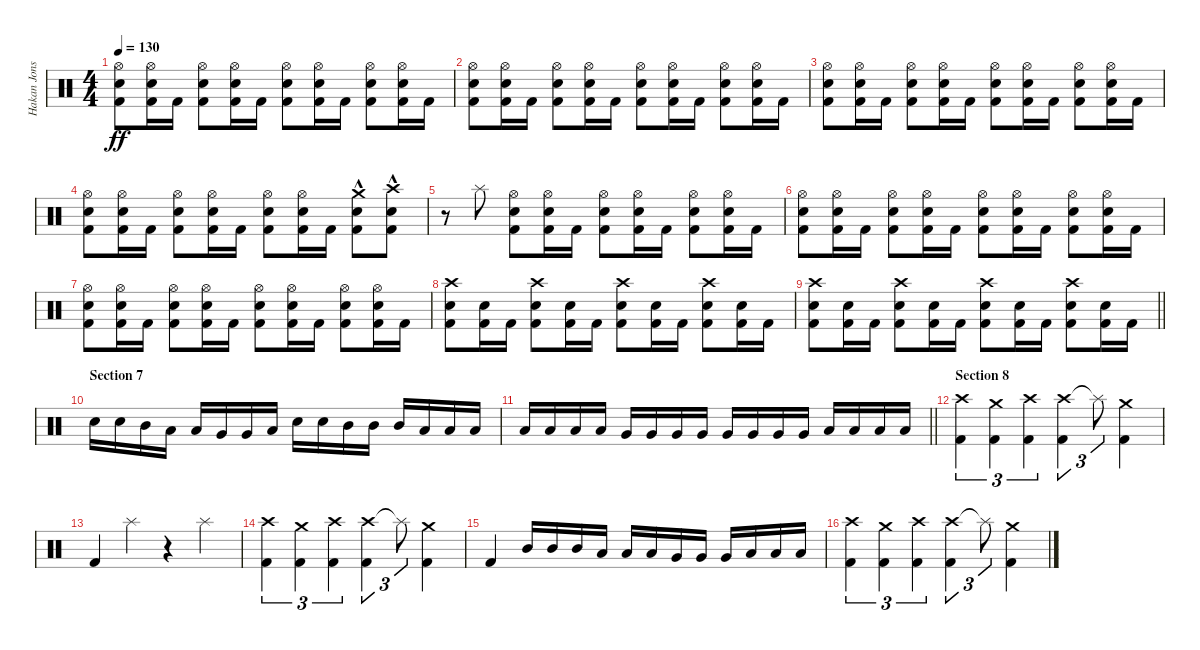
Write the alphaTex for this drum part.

\track ("Hakan Jonsson" "Hakan Jons") {instrument percussion}
\staff {score}
\articulation defaults
\ts (4 4)
\tempo 130
\clef neutral
\ks c
("Hi-Hat (open)" "Electric Snare (hit)" "Kick (hit) 2").8{dy ff} ("Hi-Hat (open)" "Electric Snare (hit)" "Kick (hit) 2").16 "Kick (hit) 2".16 ("Hi-Hat (open)" "Electric Snare (hit)" "Kick (hit) 2").8 ("Hi-Hat (open)" "Electric Snare (hit)" "Kick (hit) 2").16 "Kick (hit) 2".16 ("Hi-Hat (open)" "Electric Snare (hit)" "Kick (hit) 2").8 ("Hi-Hat (open)" "Electric Snare (hit)" "Kick (hit) 2").16 "Kick (hit) 2".16 ("Hi-Hat (open)" "Electric Snare (hit)" "Kick (hit) 2").8 ("Hi-Hat (open)" "Electric Snare (hit)" "Kick (hit) 2").16 "Kick (hit) 2".16 |
("Hi-Hat (open)" "Electric Snare (hit)" "Kick (hit) 2").8 ("Hi-Hat (open)" "Electric Snare (hit)" "Kick (hit) 2").16 "Kick (hit) 2".16 ("Hi-Hat (open)" "Electric Snare (hit)" "Kick (hit) 2").8 ("Hi-Hat (open)" "Electric Snare (hit)" "Kick (hit) 2").16 "Kick (hit) 2".16 ("Hi-Hat (open)" "Electric Snare (hit)" "Kick (hit) 2").8 ("Hi-Hat (open)" "Electric Snare (hit)" "Kick (hit) 2").16 "Kick (hit) 2".16 ("Hi-Hat (open)" "Electric Snare (hit)" "Kick (hit) 2").8 ("Hi-Hat (open)" "Electric Snare (hit)" "Kick (hit) 2").16 "Kick (hit) 2".16 |
("Hi-Hat (open)" "Electric Snare (hit)" "Kick (hit) 2").8 ("Hi-Hat (open)" "Electric Snare (hit)" "Kick (hit) 2").16 "Kick (hit) 2".16 ("Hi-Hat (open)" "Electric Snare (hit)" "Kick (hit) 2").8 ("Hi-Hat (open)" "Electric Snare (hit)" "Kick (hit) 2").16 "Kick (hit) 2".16 ("Hi-Hat (open)" "Electric Snare (hit)" "Kick (hit) 2").8 ("Hi-Hat (open)" "Electric Snare (hit)" "Kick (hit) 2").16 "Kick (hit) 2".16 ("Hi-Hat (open)" "Electric Snare (hit)" "Kick (hit) 2").8 ("Hi-Hat (open)" "Electric Snare (hit)" "Kick (hit) 2").16 "Kick (hit) 2".16 |
("Hi-Hat (open)" "Electric Snare (hit)" "Kick (hit) 2").8 ("Hi-Hat (open)" "Electric Snare (hit)" "Kick (hit) 2").16 "Kick (hit) 2".16 ("Hi-Hat (open)" "Electric Snare (hit)" "Kick (hit) 2").8 ("Hi-Hat (open)" "Electric Snare (hit)" "Kick (hit) 2").16 "Kick (hit) 2".16 ("Hi-Hat (open)" "Electric Snare (hit)" "Kick (hit) 2").8 ("Hi-Hat (open)" "Electric Snare (hit)" "Kick (hit) 2").16 "Kick (hit) 2".16 ("Crash medium (hit)" "Electric Snare (hit)"{hac} "Kick (hit) 2"{hac}).8 ("Crash high (hit)" "Electric Snare (hit)"{hac} "Kick (hit) 2"{hac}).8 |
r.8 "Splash (hit)".8 ("Hi-Hat (open)" "Electric Snare (hit)" "Kick (hit) 2").8 ("Hi-Hat (open)" "Electric Snare (hit)" "Kick (hit) 2").16 "Kick (hit) 2".16 ("Hi-Hat (open)" "Electric Snare (hit)" "Kick (hit) 2").8 ("Hi-Hat (open)" "Electric Snare (hit)" "Kick (hit) 2").16 "Kick (hit) 2".16 ("Hi-Hat (open)" "Electric Snare (hit)" "Kick (hit) 2").8 ("Hi-Hat (open)" "Electric Snare (hit)" "Kick (hit) 2").16 "Kick (hit) 2".16 |
("Hi-Hat (open)" "Electric Snare (hit)" "Kick (hit) 2").8 ("Hi-Hat (open)" "Electric Snare (hit)" "Kick (hit) 2").16 "Kick (hit) 2".16 ("Hi-Hat (open)" "Electric Snare (hit)" "Kick (hit) 2").8 ("Hi-Hat (open)" "Electric Snare (hit)" "Kick (hit) 2").16 "Kick (hit) 2".16 ("Hi-Hat (open)" "Electric Snare (hit)" "Kick (hit) 2").8 ("Hi-Hat (open)" "Electric Snare (hit)" "Kick (hit) 2").16 "Kick (hit) 2".16 ("Hi-Hat (open)" "Electric Snare (hit)" "Kick (hit) 2").8 ("Hi-Hat (open)" "Electric Snare (hit)" "Kick (hit) 2").16 "Kick (hit) 2".16 |
("Hi-Hat (open)" "Electric Snare (hit)" "Kick (hit) 2").8 ("Hi-Hat (open)" "Electric Snare (hit)" "Kick (hit) 2").16 "Kick (hit) 2".16 ("Hi-Hat (open)" "Electric Snare (hit)" "Kick (hit) 2").8 ("Hi-Hat (open)" "Electric Snare (hit)" "Kick (hit) 2").16 "Kick (hit) 2".16 ("Hi-Hat (open)" "Electric Snare (hit)" "Kick (hit) 2").8 ("Hi-Hat (open)" "Electric Snare (hit)" "Kick (hit) 2").16 "Kick (hit) 2".16 ("Hi-Hat (open)" "Electric Snare (hit)" "Kick (hit) 2").8 ("Hi-Hat (open)" "Electric Snare (hit)" "Kick (hit) 2").16 "Kick (hit) 2".16 |
("Crash high (hit)" "Electric Snare (hit)" "Kick (hit) 2").8 ("Electric Snare (hit)" "Kick (hit) 2").16 "Kick (hit) 2".16 ("Crash high (hit)" "Electric Snare (hit)" "Kick (hit) 2").8 ("Electric Snare (hit)" "Kick (hit) 2").16 "Kick (hit) 2".16 ("Crash high (hit)" "Electric Snare (hit)" "Kick (hit) 2").8 ("Electric Snare (hit)" "Kick (hit) 2").16 "Kick (hit) 2".16 ("Crash high (hit)" "Electric Snare (hit)" "Kick (hit) 2").8 ("Electric Snare (hit)" "Kick (hit) 2").16 "Kick (hit) 2".16 |
\barLineRight lightlight
("Crash high (hit)" "Electric Snare (hit)" "Kick (hit) 2").8 ("Electric Snare (hit)" "Kick (hit) 2").16 "Kick (hit) 2".16 ("Crash high (hit)" "Electric Snare (hit)" "Kick (hit) 2").8 ("Electric Snare (hit)" "Kick (hit) 2").16 "Kick (hit) 2".16 ("Crash high (hit)" "Electric Snare (hit)" "Kick (hit) 2").8 ("Electric Snare (hit)" "Kick (hit) 2").16 "Kick (hit) 2".16 ("Crash high (hit)" "Electric Snare (hit)" "Kick (hit) 2").8 ("Electric Snare (hit)" "Kick (hit) 2").16 "Kick (hit) 2".16 |
\section ("" "Section 7")
"Electric Snare (hit)".16 "Electric Snare (hit)".16 "Mid Tom (hit)".16 "Low Tom (hit)".16 "Low Tom (hit)".16 "Very Low Tom (hit)".16 "Very Low Tom (hit)".16 "Low Floor Tom (hit)".16 "Electric Snare (hit)".16 "Electric Snare (hit)".16 "Mid Tom (hit)".16 "Mid Tom (hit)".16 "Mid Tom (hit)".16 "Low Tom (hit)".16 "Low Tom (hit)".16 "Low Tom (hit)".16 |
\barLineRight lightlight "Low Tom (hit)".16 "Low Tom (hit)".16 "Low Tom (hit)".16 "Low Tom (hit)".16 "Very Low Tom (hit)".16 "Very Low Tom (hit)".16 "Very Low Tom (hit)".16 "Very Low Tom (hit)".16 "Very Low Tom (hit)".16 "Very Low Tom (hit)".16 "Very Low Tom (hit)".16 "Very Low Tom (hit)".16 "Low Floor Tom (hit)".16 "Low Floor Tom (hit)".16 "Low Floor Tom (hit)".16 "Low Floor Tom (hit)".16
|
\section ("" "Section 8")
("Crash high (hit)" "Kick (hit) 2").4{tu (3 2)} ("Crash medium (hit)" "Kick (hit) 2").4{tu (3 2)} ("Crash high (hit)" "Kick (hit) 2").4{tu (3 2)} ("Crash high (hit)" "Kick (hit) 2").4{tu (3 2)} "Splash (hit)"{t}.8{tu (3 2)} ("Crash medium (hit)" "Kick (hit) 2").4 |
"Kick (hit) 2".4 "Splash (hit)".4 r.4 "Splash (hit)".4 |
("Crash high (hit)" "Kick (hit) 2").4{tu (3 2)} ("Crash medium (hit)" "Kick (hit) 2").4{tu (3 2)} ("Crash high (hit)" "Kick (hit) 2").4{tu (3 2)} ("Crash high (hit)" "Kick (hit) 2").4{tu (3 2)} "Splash (hit)"{t}.8{tu (3 2)} ("Crash medium (hit)" "Kick (hit) 2").4 |
"Kick (hit) 2".4 "Mid Tom (hit)".16 "Mid Tom (hit)".16 "Mid Tom (hit)".16 "Low Tom (hit)".16 "Low Tom (hit)".16 "Low Tom (hit)".16 "Very Low Tom (hit)".16 "Very Low Tom (hit)".16 "Very Low Tom (hit)".16 "Low Floor Tom (hit)".16 "Low Floor Tom (hit)".16 "Low Floor Tom (hit)".16 |
("Crash high (hit)" "Kick (hit) 2").4{tu (3 2)} ("Crash medium (hit)" "Kick (hit) 2").4{tu (3 2)} ("Crash high (hit)" "Kick (hit) 2").4{tu (3 2)} ("Crash high (hit)" "Kick (hit) 2").4{tu (3 2)} "Splash (hit)"{t}.8{tu (3 2)} ("Crash medium (hit)" "Kick (hit) 2").4
